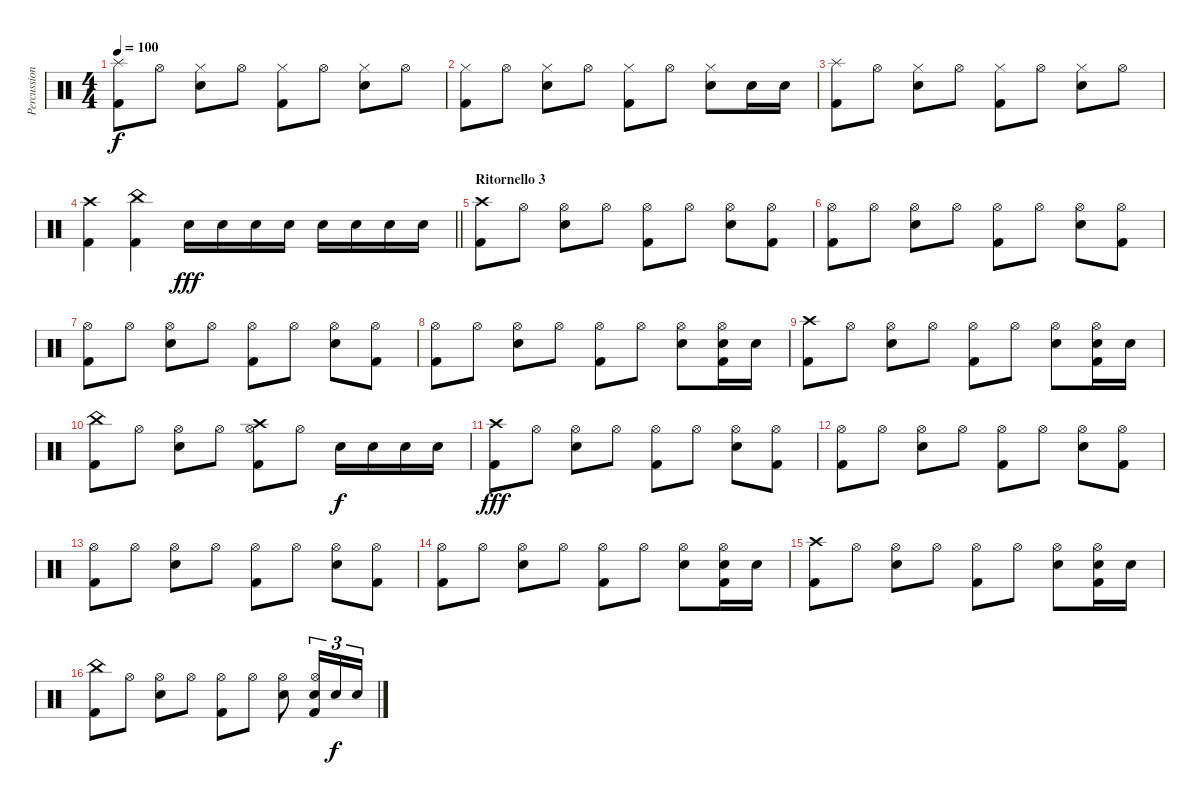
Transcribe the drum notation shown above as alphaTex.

\track ("Percussioni" "Percussion") {instrument percussion}
\staff {score}
\articulation defaults
\ts (4 4)
\tempo 100
\clef neutral
\ks c
("Splash (hit)" "Kick (hit) 2").8{dy f} "Hi-Hat (open)".8 ("Hi-Hat (closed)" "Snare (hit) 2").8 "Hi-Hat (open)".8 ("Hi-Hat (closed)" "Kick (hit) 2").8 "Hi-Hat (open)".8 ("Hi-Hat (closed)" "Snare (hit) 2").8 "Hi-Hat (open)".8 |
("Hi-Hat (closed)" "Kick (hit) 2").8 "Hi-Hat (open)".8 ("Hi-Hat (closed)" "Snare (hit) 2").8 "Hi-Hat (open)".8 ("Hi-Hat (closed)" "Kick (hit) 2").8 "Hi-Hat (open)".8 ("Hi-Hat (closed)" "Snare (hit) 2").8 "Snare (hit) 2".16 "Snare (hit) 2".16 |
("Splash (hit)" "Kick (hit) 2").8 "Hi-Hat (open)".8 ("Hi-Hat (closed)" "Snare (hit) 2").8 "Hi-Hat (open)".8 ("Hi-Hat (closed)" "Kick (hit) 2").8 "Hi-Hat (open)".8 ("Hi-Hat (closed)" "Snare (hit) 2").8 "Hi-Hat (open)".8 |
\barLineRight lightlight
("Crash high (hit)" "Kick (hit) 2").4 ("China (hit)" "Kick (hit) 2").4 "Snare (hit) 2".16{dy fff} "Snare (hit) 2".16 "Snare (hit) 2".16 "Snare (hit) 2".16 "Snare (hit) 2".16 "Snare (hit) 2".16 "Snare (hit) 2".16 "Snare (hit) 2".16 |
\section ("" "Ritornello 3")
("Crash high (hit)" "Kick (hit) 2").8 "Hi-Hat (open)".8 ("Hi-Hat (open)" "Snare (hit) 2").8 "Hi-Hat (open)".8 ("Hi-Hat (open)" "Kick (hit) 2").8 "Hi-Hat (open)".8 ("Hi-Hat (open)" "Snare (hit) 2").8 ("Hi-Hat (open)" "Kick (hit) 2").8 |
("Hi-Hat (open)" "Kick (hit) 2").8 "Hi-Hat (open)".8 ("Hi-Hat (open)" "Snare (hit) 2").8 "Hi-Hat (open)".8 ("Hi-Hat (open)" "Kick (hit) 2").8 "Hi-Hat (open)".8 ("Hi-Hat (open)" "Snare (hit) 2").8 ("Hi-Hat (open)" "Kick (hit) 2").8 |
("Hi-Hat (open)" "Kick (hit) 2").8 "Hi-Hat (open)".8 ("Hi-Hat (open)" "Snare (hit) 2").8 "Hi-Hat (open)".8 ("Hi-Hat (open)" "Kick (hit) 2").8 "Hi-Hat (open)".8 ("Hi-Hat (open)" "Snare (hit) 2").8 ("Hi-Hat (open)" "Kick (hit) 2").8 |
("Hi-Hat (open)" "Kick (hit) 2").8 "Hi-Hat (open)".8 ("Hi-Hat (open)" "Snare (hit) 2").8 "Hi-Hat (open)".8 ("Hi-Hat (open)" "Kick (hit) 2").8 "Hi-Hat (open)".8 ("Hi-Hat (open)" "Snare (hit) 2").8 ("Hi-Hat (open)" "Snare (hit) 2" "Kick (hit) 2").16 "Snare (hit) 2".16 |
("Crash high (hit)" "Kick (hit) 2").8 "Hi-Hat (open)".8 ("Hi-Hat (open)" "Snare (hit) 2").8 "Hi-Hat (open)".8 ("Hi-Hat (open)" "Kick (hit) 2").8 "Hi-Hat (open)".8 ("Hi-Hat (open)" "Snare (hit) 2").8 ("Hi-Hat (open)" "Snare (hit) 2" "Kick (hit) 2").16 "Snare (hit) 2".16 |
("China (hit)" "Kick (hit) 2").8 "Hi-Hat (open)".8 ("Hi-Hat (open)" "Snare (hit) 2").8 "Hi-Hat (open)".8 ("Crash high (hit)" "Hi-Hat (open)" "Kick (hit) 2").8 "Hi-Hat (open)".8 "Snare (hit) 2".16{dy f} "Snare (hit) 2".16 "Snare (hit) 2".16 "Snare (hit) 2".16 |
("Crash high (hit)" "Kick (hit) 2").8{dy fff} "Hi-Hat (open)".8 ("Hi-Hat (open)" "Snare (hit) 2").8 "Hi-Hat (open)".8 ("Hi-Hat (open)" "Kick (hit) 2").8 "Hi-Hat (open)".8 ("Hi-Hat (open)" "Snare (hit) 2").8 ("Hi-Hat (open)" "Kick (hit) 2").8 |
("Hi-Hat (open)" "Kick (hit) 2").8 "Hi-Hat (open)".8 ("Hi-Hat (open)" "Snare (hit) 2").8 "Hi-Hat (open)".8 ("Hi-Hat (open)" "Kick (hit) 2").8 "Hi-Hat (open)".8 ("Hi-Hat (open)" "Snare (hit) 2").8 ("Hi-Hat (open)" "Kick (hit) 2").8 |
("Hi-Hat (open)" "Kick (hit) 2").8 "Hi-Hat (open)".8 ("Hi-Hat (open)" "Snare (hit) 2").8 "Hi-Hat (open)".8 ("Hi-Hat (open)" "Kick (hit) 2").8 "Hi-Hat (open)".8 ("Hi-Hat (open)" "Snare (hit) 2").8 ("Hi-Hat (open)" "Kick (hit) 2").8 |
("Hi-Hat (open)" "Kick (hit) 2").8 "Hi-Hat (open)".8 ("Hi-Hat (open)" "Snare (hit) 2").8 "Hi-Hat (open)".8 ("Hi-Hat (open)" "Kick (hit) 2").8 "Hi-Hat (open)".8 ("Hi-Hat (open)" "Snare (hit) 2").8 ("Hi-Hat (open)" "Snare (hit) 2" "Kick (hit) 2").16 "Snare (hit) 2".16 |
("Crash high (hit)" "Kick (hit) 2").8 "Hi-Hat (open)".8 ("Hi-Hat (open)" "Snare (hit) 2").8 "Hi-Hat (open)".8 ("Hi-Hat (open)" "Kick (hit) 2").8 "Hi-Hat (open)".8 ("Hi-Hat (open)" "Snare (hit) 2").8 ("Hi-Hat (open)" "Snare (hit) 2" "Kick (hit) 2").16 "Snare (hit) 2".16 |
("China (hit)" "Kick (hit) 2").8 "Hi-Hat (open)".8 ("Hi-Hat (open)" "Snare (hit) 2").8 "Hi-Hat (open)".8 ("Hi-Hat (open)" "Kick (hit) 2").8 "Hi-Hat (open)".8 ("Hi-Hat (open)" "Snare (hit) 2").8 ("Hi-Hat (open)" "Snare (hit) 2" "Kick (hit) 2").16{tu (3 2)} "Snare (hit) 2".16{tu (3 2) dy f} "Snare (hit) 2".16{tu (3 2)}
